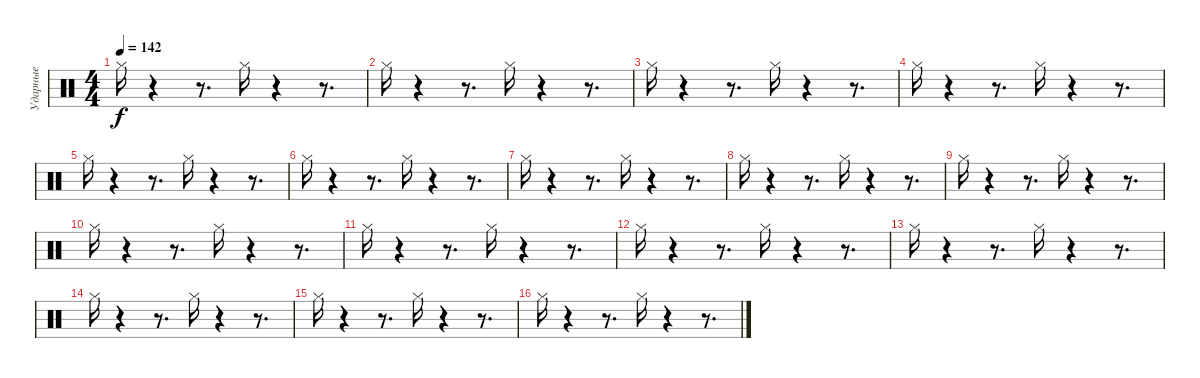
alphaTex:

\track ("Ударные" "Ударные") {instrument percussion}
\staff {score}
\articulation defaults
\ts (4 4)
\tempo 142
\clef neutral
\ks c "Hi-Hat (closed)".16{dy f}
r.4 r.8{d} "Hi-Hat (closed)".16 r.4 r.8{d} |
"Hi-Hat (closed)".16 r.4 r.8{d} "Hi-Hat (closed)".16 r.4 r.8{d} |
"Hi-Hat (closed)".16 r.4 r.8{d} "Hi-Hat (closed)".16 r.4 r.8{d} |
"Hi-Hat (closed)".16 r.4 r.8{d} "Hi-Hat (closed)".16 r.4 r.8{d} |
"Hi-Hat (closed)".16 r.4 r.8{d} "Hi-Hat (closed)".16 r.4 r.8{d} |
"Hi-Hat (closed)".16 r.4 r.8{d} "Hi-Hat (closed)".16 r.4 r.8{d} |
"Hi-Hat (closed)".16 r.4 r.8{d} "Hi-Hat (closed)".16 r.4 r.8{d} |
"Hi-Hat (closed)".16 r.4 r.8{d} "Hi-Hat (closed)".16 r.4 r.8{d} |
"Hi-Hat (closed)".16 r.4 r.8{d} "Hi-Hat (closed)".16 r.4 r.8{d} |
"Hi-Hat (closed)".16 r.4 r.8{d} "Hi-Hat (closed)".16 r.4 r.8{d} |
"Hi-Hat (closed)".16 r.4 r.8{d} "Hi-Hat (closed)".16 r.4 r.8{d} |
"Hi-Hat (closed)".16 r.4 r.8{d} "Hi-Hat (closed)".16 r.4 r.8{d} |
"Hi-Hat (closed)".16 r.4 r.8{d} "Hi-Hat (closed)".16 r.4 r.8{d} |
"Hi-Hat (closed)".16 r.4 r.8{d} "Hi-Hat (closed)".16 r.4 r.8{d} |
"Hi-Hat (closed)".16 r.4 r.8{d} "Hi-Hat (closed)".16 r.4 r.8{d} |
"Hi-Hat (closed)".16 r.4 r.8{d} "Hi-Hat (closed)".16 r.4 r.8{d}
